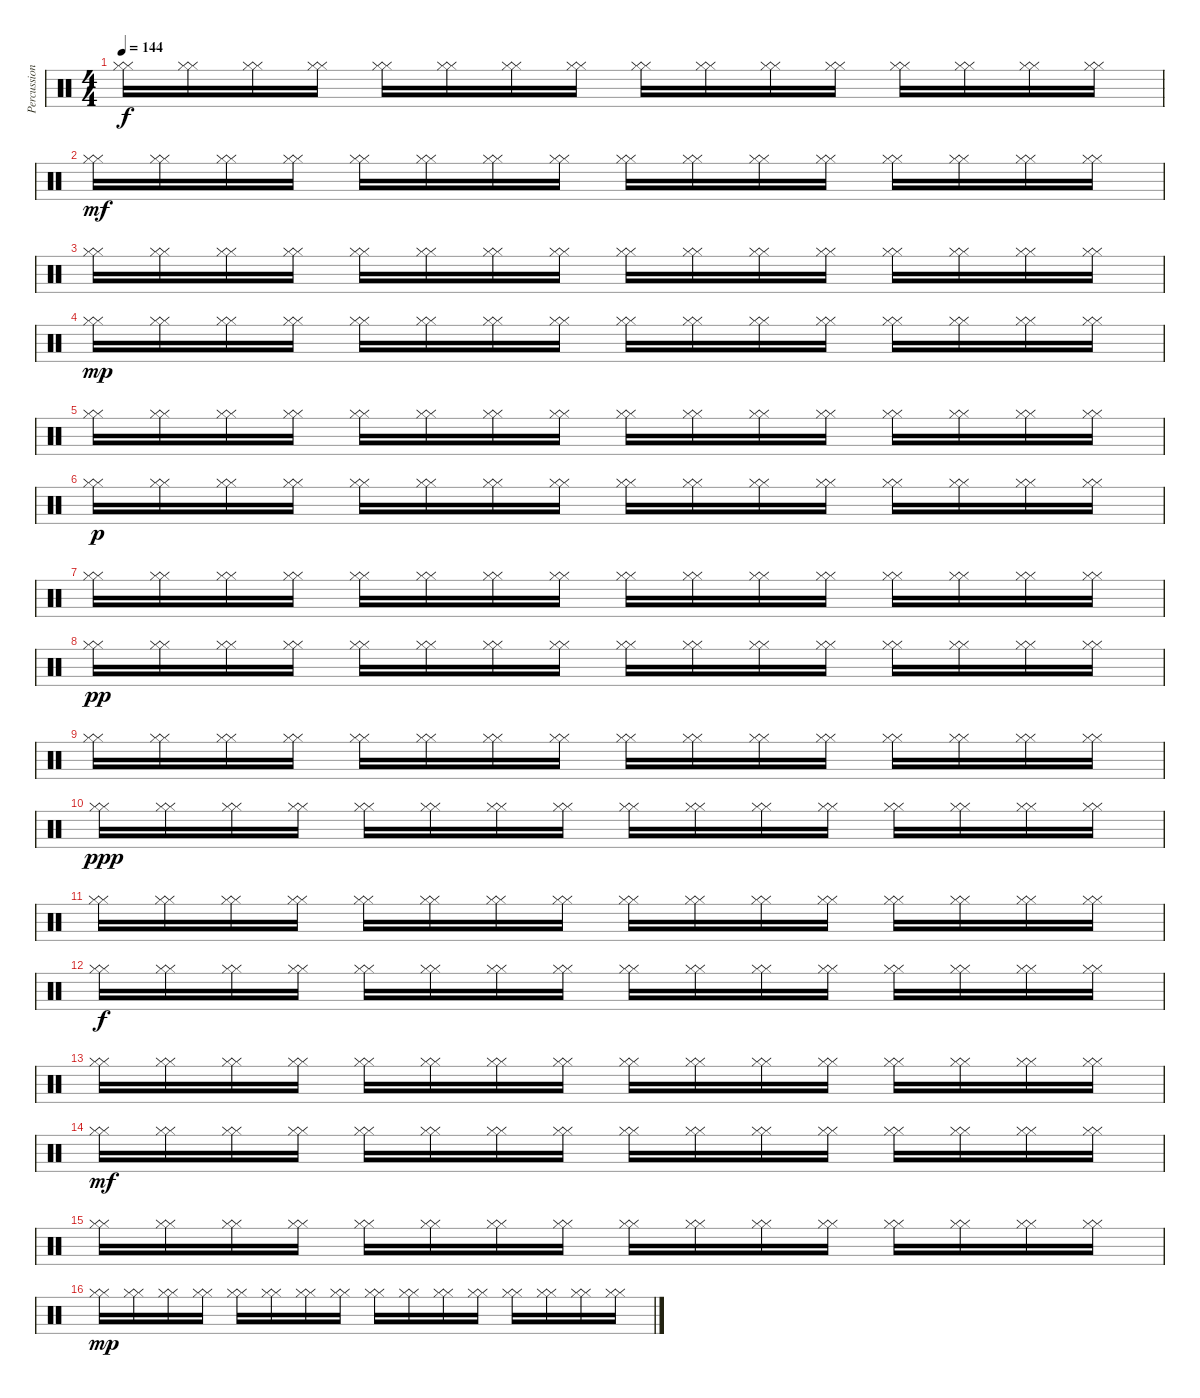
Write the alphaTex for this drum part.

\track ("Percussion 3" "Percussion") {instrument percussion}
\staff {score}
\articulation defaults
\ts (4 4)
\tempo 144
\clef neutral
\ks c
("Hi-Hat (closed)" "Hi-Hat (closed)").16{dy f} ("Hi-Hat (closed)" "Hi-Hat (closed)").16 ("Hi-Hat (closed)" "Hi-Hat (closed)").16 ("Hi-Hat (closed)" "Hi-Hat (closed)").16 ("Hi-Hat (closed)" "Hi-Hat (closed)").16 ("Hi-Hat (closed)" "Hi-Hat (closed)").16 ("Hi-Hat (closed)" "Hi-Hat (closed)").16 ("Hi-Hat (closed)" "Hi-Hat (closed)").16 ("Hi-Hat (closed)" "Hi-Hat (closed)").16 ("Hi-Hat (closed)" "Hi-Hat (closed)").16 ("Hi-Hat (closed)" "Hi-Hat (closed)").16 ("Hi-Hat (closed)" "Hi-Hat (closed)").16 ("Hi-Hat (closed)" "Hi-Hat (closed)").16 ("Hi-Hat (closed)" "Hi-Hat (closed)").16 ("Hi-Hat (closed)" "Hi-Hat (closed)").16 ("Hi-Hat (closed)" "Hi-Hat (closed)").16 |
("Hi-Hat (closed)" "Hi-Hat (closed)").16{dy mf} ("Hi-Hat (closed)" "Hi-Hat (closed)").16 ("Hi-Hat (closed)" "Hi-Hat (closed)").16 ("Hi-Hat (closed)" "Hi-Hat (closed)").16 ("Hi-Hat (closed)" "Hi-Hat (closed)").16 ("Hi-Hat (closed)" "Hi-Hat (closed)").16 ("Hi-Hat (closed)" "Hi-Hat (closed)").16 ("Hi-Hat (closed)" "Hi-Hat (closed)").16 ("Hi-Hat (closed)" "Hi-Hat (closed)").16 ("Hi-Hat (closed)" "Hi-Hat (closed)").16 ("Hi-Hat (closed)" "Hi-Hat (closed)").16 ("Hi-Hat (closed)" "Hi-Hat (closed)").16 ("Hi-Hat (closed)" "Hi-Hat (closed)").16 ("Hi-Hat (closed)" "Hi-Hat (closed)").16 ("Hi-Hat (closed)" "Hi-Hat (closed)").16 ("Hi-Hat (closed)" "Hi-Hat (closed)").16 |
("Hi-Hat (closed)" "Hi-Hat (closed)").16 ("Hi-Hat (closed)" "Hi-Hat (closed)").16 ("Hi-Hat (closed)" "Hi-Hat (closed)").16 ("Hi-Hat (closed)" "Hi-Hat (closed)").16 ("Hi-Hat (closed)" "Hi-Hat (closed)").16 ("Hi-Hat (closed)" "Hi-Hat (closed)").16 ("Hi-Hat (closed)" "Hi-Hat (closed)").16 ("Hi-Hat (closed)" "Hi-Hat (closed)").16 ("Hi-Hat (closed)" "Hi-Hat (closed)").16 ("Hi-Hat (closed)" "Hi-Hat (closed)").16 ("Hi-Hat (closed)" "Hi-Hat (closed)").16 ("Hi-Hat (closed)" "Hi-Hat (closed)").16 ("Hi-Hat (closed)" "Hi-Hat (closed)").16 ("Hi-Hat (closed)" "Hi-Hat (closed)").16 ("Hi-Hat (closed)" "Hi-Hat (closed)").16 ("Hi-Hat (closed)" "Hi-Hat (closed)").16 |
("Hi-Hat (closed)" "Hi-Hat (closed)").16{dy mp} ("Hi-Hat (closed)" "Hi-Hat (closed)").16 ("Hi-Hat (closed)" "Hi-Hat (closed)").16 ("Hi-Hat (closed)" "Hi-Hat (closed)").16 ("Hi-Hat (closed)" "Hi-Hat (closed)").16 ("Hi-Hat (closed)" "Hi-Hat (closed)").16 ("Hi-Hat (closed)" "Hi-Hat (closed)").16 ("Hi-Hat (closed)" "Hi-Hat (closed)").16 ("Hi-Hat (closed)" "Hi-Hat (closed)").16 ("Hi-Hat (closed)" "Hi-Hat (closed)").16 ("Hi-Hat (closed)" "Hi-Hat (closed)").16 ("Hi-Hat (closed)" "Hi-Hat (closed)").16 ("Hi-Hat (closed)" "Hi-Hat (closed)").16 ("Hi-Hat (closed)" "Hi-Hat (closed)").16 ("Hi-Hat (closed)" "Hi-Hat (closed)").16 ("Hi-Hat (closed)" "Hi-Hat (closed)").16 |
("Hi-Hat (closed)" "Hi-Hat (closed)").16 ("Hi-Hat (closed)" "Hi-Hat (closed)").16 ("Hi-Hat (closed)" "Hi-Hat (closed)").16 ("Hi-Hat (closed)" "Hi-Hat (closed)").16 ("Hi-Hat (closed)" "Hi-Hat (closed)").16 ("Hi-Hat (closed)" "Hi-Hat (closed)").16 ("Hi-Hat (closed)" "Hi-Hat (closed)").16 ("Hi-Hat (closed)" "Hi-Hat (closed)").16 ("Hi-Hat (closed)" "Hi-Hat (closed)").16 ("Hi-Hat (closed)" "Hi-Hat (closed)").16 ("Hi-Hat (closed)" "Hi-Hat (closed)").16 ("Hi-Hat (closed)" "Hi-Hat (closed)").16 ("Hi-Hat (closed)" "Hi-Hat (closed)").16 ("Hi-Hat (closed)" "Hi-Hat (closed)").16 ("Hi-Hat (closed)" "Hi-Hat (closed)").16 ("Hi-Hat (closed)" "Hi-Hat (closed)").16 |
("Hi-Hat (closed)" "Hi-Hat (closed)").16{dy p} ("Hi-Hat (closed)" "Hi-Hat (closed)").16 ("Hi-Hat (closed)" "Hi-Hat (closed)").16 ("Hi-Hat (closed)" "Hi-Hat (closed)").16 ("Hi-Hat (closed)" "Hi-Hat (closed)").16 ("Hi-Hat (closed)" "Hi-Hat (closed)").16 ("Hi-Hat (closed)" "Hi-Hat (closed)").16 ("Hi-Hat (closed)" "Hi-Hat (closed)").16 ("Hi-Hat (closed)" "Hi-Hat (closed)").16 ("Hi-Hat (closed)" "Hi-Hat (closed)").16 ("Hi-Hat (closed)" "Hi-Hat (closed)").16 ("Hi-Hat (closed)" "Hi-Hat (closed)").16 ("Hi-Hat (closed)" "Hi-Hat (closed)").16 ("Hi-Hat (closed)" "Hi-Hat (closed)").16 ("Hi-Hat (closed)" "Hi-Hat (closed)").16 ("Hi-Hat (closed)" "Hi-Hat (closed)").16 |
("Hi-Hat (closed)" "Hi-Hat (closed)").16 ("Hi-Hat (closed)" "Hi-Hat (closed)").16 ("Hi-Hat (closed)" "Hi-Hat (closed)").16 ("Hi-Hat (closed)" "Hi-Hat (closed)").16 ("Hi-Hat (closed)" "Hi-Hat (closed)").16 ("Hi-Hat (closed)" "Hi-Hat (closed)").16 ("Hi-Hat (closed)" "Hi-Hat (closed)").16 ("Hi-Hat (closed)" "Hi-Hat (closed)").16 ("Hi-Hat (closed)" "Hi-Hat (closed)").16 ("Hi-Hat (closed)" "Hi-Hat (closed)").16 ("Hi-Hat (closed)" "Hi-Hat (closed)").16 ("Hi-Hat (closed)" "Hi-Hat (closed)").16 ("Hi-Hat (closed)" "Hi-Hat (closed)").16 ("Hi-Hat (closed)" "Hi-Hat (closed)").16 ("Hi-Hat (closed)" "Hi-Hat (closed)").16 ("Hi-Hat (closed)" "Hi-Hat (closed)").16 |
("Hi-Hat (closed)" "Hi-Hat (closed)").16{dy pp} ("Hi-Hat (closed)" "Hi-Hat (closed)").16 ("Hi-Hat (closed)" "Hi-Hat (closed)").16 ("Hi-Hat (closed)" "Hi-Hat (closed)").16 ("Hi-Hat (closed)" "Hi-Hat (closed)").16 ("Hi-Hat (closed)" "Hi-Hat (closed)").16 ("Hi-Hat (closed)" "Hi-Hat (closed)").16 ("Hi-Hat (closed)" "Hi-Hat (closed)").16 ("Hi-Hat (closed)" "Hi-Hat (closed)").16 ("Hi-Hat (closed)" "Hi-Hat (closed)").16 ("Hi-Hat (closed)" "Hi-Hat (closed)").16 ("Hi-Hat (closed)" "Hi-Hat (closed)").16 ("Hi-Hat (closed)" "Hi-Hat (closed)").16 ("Hi-Hat (closed)" "Hi-Hat (closed)").16 ("Hi-Hat (closed)" "Hi-Hat (closed)").16 ("Hi-Hat (closed)" "Hi-Hat (closed)").16 |
("Hi-Hat (closed)" "Hi-Hat (closed)").16 ("Hi-Hat (closed)" "Hi-Hat (closed)").16 ("Hi-Hat (closed)" "Hi-Hat (closed)").16 ("Hi-Hat (closed)" "Hi-Hat (closed)").16 ("Hi-Hat (closed)" "Hi-Hat (closed)").16 ("Hi-Hat (closed)" "Hi-Hat (closed)").16 ("Hi-Hat (closed)" "Hi-Hat (closed)").16 ("Hi-Hat (closed)" "Hi-Hat (closed)").16 ("Hi-Hat (closed)" "Hi-Hat (closed)").16 ("Hi-Hat (closed)" "Hi-Hat (closed)").16 ("Hi-Hat (closed)" "Hi-Hat (closed)").16 ("Hi-Hat (closed)" "Hi-Hat (closed)").16 ("Hi-Hat (closed)" "Hi-Hat (closed)").16 ("Hi-Hat (closed)" "Hi-Hat (closed)").16 ("Hi-Hat (closed)" "Hi-Hat (closed)").16 ("Hi-Hat (closed)" "Hi-Hat (closed)").16 |
("Hi-Hat (closed)" "Hi-Hat (closed)").16{dy ppp} ("Hi-Hat (closed)" "Hi-Hat (closed)").16 ("Hi-Hat (closed)" "Hi-Hat (closed)").16 ("Hi-Hat (closed)" "Hi-Hat (closed)").16 ("Hi-Hat (closed)" "Hi-Hat (closed)").16 ("Hi-Hat (closed)" "Hi-Hat (closed)").16 ("Hi-Hat (closed)" "Hi-Hat (closed)").16 ("Hi-Hat (closed)" "Hi-Hat (closed)").16 ("Hi-Hat (closed)" "Hi-Hat (closed)").16 ("Hi-Hat (closed)" "Hi-Hat (closed)").16 ("Hi-Hat (closed)" "Hi-Hat (closed)").16 ("Hi-Hat (closed)" "Hi-Hat (closed)").16 ("Hi-Hat (closed)" "Hi-Hat (closed)").16 ("Hi-Hat (closed)" "Hi-Hat (closed)").16 ("Hi-Hat (closed)" "Hi-Hat (closed)").16 ("Hi-Hat (closed)" "Hi-Hat (closed)").16 |
("Hi-Hat (closed)" "Hi-Hat (closed)").16 ("Hi-Hat (closed)" "Hi-Hat (closed)").16 ("Hi-Hat (closed)" "Hi-Hat (closed)").16 ("Hi-Hat (closed)" "Hi-Hat (closed)").16 ("Hi-Hat (closed)" "Hi-Hat (closed)").16 ("Hi-Hat (closed)" "Hi-Hat (closed)").16 ("Hi-Hat (closed)" "Hi-Hat (closed)").16 ("Hi-Hat (closed)" "Hi-Hat (closed)").16 ("Hi-Hat (closed)" "Hi-Hat (closed)").16 ("Hi-Hat (closed)" "Hi-Hat (closed)").16 ("Hi-Hat (closed)" "Hi-Hat (closed)").16 ("Hi-Hat (closed)" "Hi-Hat (closed)").16 ("Hi-Hat (closed)" "Hi-Hat (closed)").16 ("Hi-Hat (closed)" "Hi-Hat (closed)").16 ("Hi-Hat (closed)" "Hi-Hat (closed)").16 ("Hi-Hat (closed)" "Hi-Hat (closed)").16 |
("Hi-Hat (closed)" "Hi-Hat (closed)").16{dy f} ("Hi-Hat (closed)" "Hi-Hat (closed)").16 ("Hi-Hat (closed)" "Hi-Hat (closed)").16 ("Hi-Hat (closed)" "Hi-Hat (closed)").16 ("Hi-Hat (closed)" "Hi-Hat (closed)").16 ("Hi-Hat (closed)" "Hi-Hat (closed)").16 ("Hi-Hat (closed)" "Hi-Hat (closed)").16 ("Hi-Hat (closed)" "Hi-Hat (closed)").16 ("Hi-Hat (closed)" "Hi-Hat (closed)").16 ("Hi-Hat (closed)" "Hi-Hat (closed)").16 ("Hi-Hat (closed)" "Hi-Hat (closed)").16 ("Hi-Hat (closed)" "Hi-Hat (closed)").16 ("Hi-Hat (closed)" "Hi-Hat (closed)").16 ("Hi-Hat (closed)" "Hi-Hat (closed)").16 ("Hi-Hat (closed)" "Hi-Hat (closed)").16 ("Hi-Hat (closed)" "Hi-Hat (closed)").16 |
("Hi-Hat (closed)" "Hi-Hat (closed)").16 ("Hi-Hat (closed)" "Hi-Hat (closed)").16 ("Hi-Hat (closed)" "Hi-Hat (closed)").16 ("Hi-Hat (closed)" "Hi-Hat (closed)").16 ("Hi-Hat (closed)" "Hi-Hat (closed)").16 ("Hi-Hat (closed)" "Hi-Hat (closed)").16 ("Hi-Hat (closed)" "Hi-Hat (closed)").16 ("Hi-Hat (closed)" "Hi-Hat (closed)").16 ("Hi-Hat (closed)" "Hi-Hat (closed)").16 ("Hi-Hat (closed)" "Hi-Hat (closed)").16 ("Hi-Hat (closed)" "Hi-Hat (closed)").16 ("Hi-Hat (closed)" "Hi-Hat (closed)").16 ("Hi-Hat (closed)" "Hi-Hat (closed)").16 ("Hi-Hat (closed)" "Hi-Hat (closed)").16 ("Hi-Hat (closed)" "Hi-Hat (closed)").16 ("Hi-Hat (closed)" "Hi-Hat (closed)").16 |
("Hi-Hat (closed)" "Hi-Hat (closed)").16{dy mf} ("Hi-Hat (closed)" "Hi-Hat (closed)").16 ("Hi-Hat (closed)" "Hi-Hat (closed)").16 ("Hi-Hat (closed)" "Hi-Hat (closed)").16 ("Hi-Hat (closed)" "Hi-Hat (closed)").16 ("Hi-Hat (closed)" "Hi-Hat (closed)").16 ("Hi-Hat (closed)" "Hi-Hat (closed)").16 ("Hi-Hat (closed)" "Hi-Hat (closed)").16 ("Hi-Hat (closed)" "Hi-Hat (closed)").16 ("Hi-Hat (closed)" "Hi-Hat (closed)").16 ("Hi-Hat (closed)" "Hi-Hat (closed)").16 ("Hi-Hat (closed)" "Hi-Hat (closed)").16 ("Hi-Hat (closed)" "Hi-Hat (closed)").16 ("Hi-Hat (closed)" "Hi-Hat (closed)").16 ("Hi-Hat (closed)" "Hi-Hat (closed)").16 ("Hi-Hat (closed)" "Hi-Hat (closed)").16 |
("Hi-Hat (closed)" "Hi-Hat (closed)").16 ("Hi-Hat (closed)" "Hi-Hat (closed)").16 ("Hi-Hat (closed)" "Hi-Hat (closed)").16 ("Hi-Hat (closed)" "Hi-Hat (closed)").16 ("Hi-Hat (closed)" "Hi-Hat (closed)").16 ("Hi-Hat (closed)" "Hi-Hat (closed)").16 ("Hi-Hat (closed)" "Hi-Hat (closed)").16 ("Hi-Hat (closed)" "Hi-Hat (closed)").16 ("Hi-Hat (closed)" "Hi-Hat (closed)").16 ("Hi-Hat (closed)" "Hi-Hat (closed)").16 ("Hi-Hat (closed)" "Hi-Hat (closed)").16 ("Hi-Hat (closed)" "Hi-Hat (closed)").16 ("Hi-Hat (closed)" "Hi-Hat (closed)").16 ("Hi-Hat (closed)" "Hi-Hat (closed)").16 ("Hi-Hat (closed)" "Hi-Hat (closed)").16 ("Hi-Hat (closed)" "Hi-Hat (closed)").16 |
("Hi-Hat (closed)" "Hi-Hat (closed)").16{dy mp} ("Hi-Hat (closed)" "Hi-Hat (closed)").16 ("Hi-Hat (closed)" "Hi-Hat (closed)").16 ("Hi-Hat (closed)" "Hi-Hat (closed)").16 ("Hi-Hat (closed)" "Hi-Hat (closed)").16 ("Hi-Hat (closed)" "Hi-Hat (closed)").16 ("Hi-Hat (closed)" "Hi-Hat (closed)").16 ("Hi-Hat (closed)" "Hi-Hat (closed)").16 ("Hi-Hat (closed)" "Hi-Hat (closed)").16 ("Hi-Hat (closed)" "Hi-Hat (closed)").16 ("Hi-Hat (closed)" "Hi-Hat (closed)").16 ("Hi-Hat (closed)" "Hi-Hat (closed)").16 ("Hi-Hat (closed)" "Hi-Hat (closed)").16 ("Hi-Hat (closed)" "Hi-Hat (closed)").16 ("Hi-Hat (closed)" "Hi-Hat (closed)").16 ("Hi-Hat (closed)" "Hi-Hat (closed)").16
